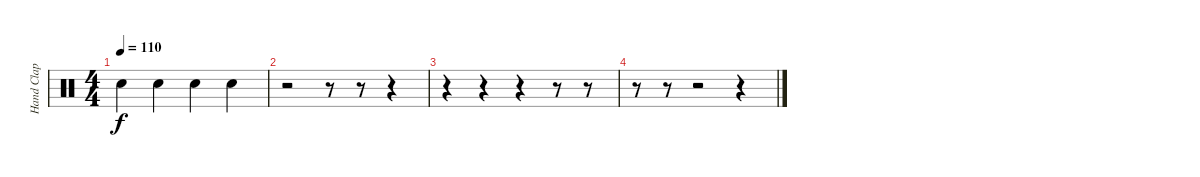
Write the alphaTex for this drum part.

\track ("Hand Clap" "Hand Clap") {instrument percussion}
\staff {score}
\articulation defaults
\ts (4 4)
\tempo 110
\clef neutral
\ks c "Hand Clap (hit)".4{dy f} "Hand Clap (hit)".4 "Hand Clap (hit)".4 "Hand Clap (hit)".4
|
r.2 r.8 r.8 r.4 |
r.4 r.4 r.4 r.8 r.8 |
r.8 r.8 r.2 r.4
